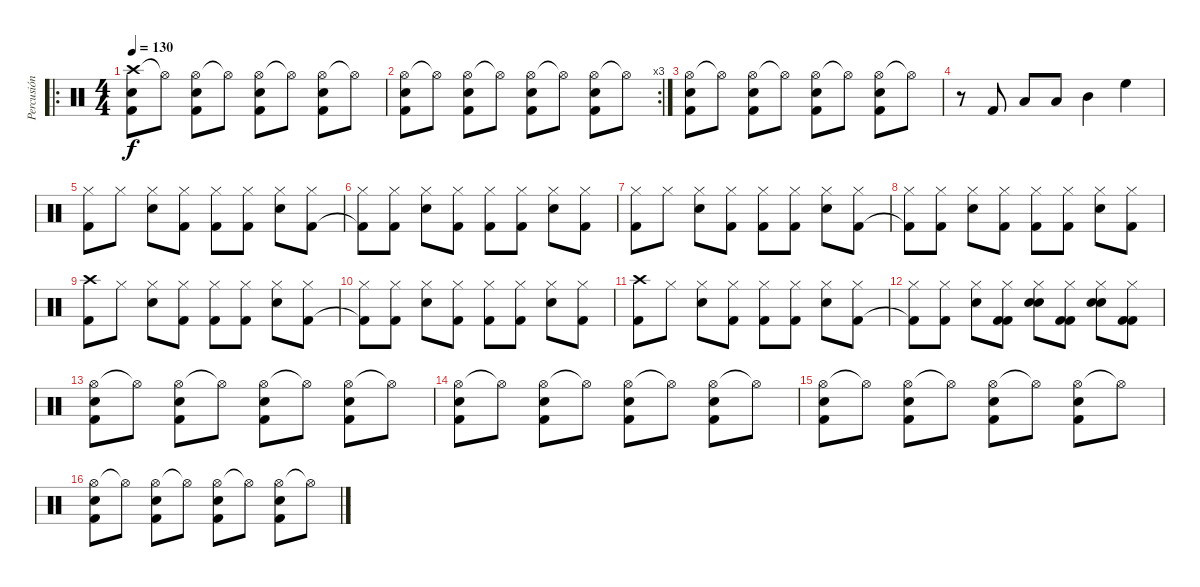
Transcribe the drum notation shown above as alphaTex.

\track ("Percusión" "Percusión") {instrument percussion}
\staff {score}
\articulation defaults
\ro
\ts (4 4)
\tempo 130
\clef neutral
\ks c
("Crash high (hit)" "Snare (hit) 2" "Kick (hit) 2").8{dy f} "Hi-Hat (open)"{t}.8 ("Hi-Hat (open)" "Snare (hit) 2" "Kick (hit) 2").8 "Hi-Hat (open)"{t}.8 ("Hi-Hat (open)" "Snare (hit) 2" "Kick (hit) 2").8 "Hi-Hat (open)"{t}.8 ("Hi-Hat (open)" "Snare (hit) 2" "Kick (hit) 2").8 "Hi-Hat (open)"{t}.8 |
\rc 3
("Hi-Hat (open)" "Snare (hit) 2" "Kick (hit) 2").8 "Hi-Hat (open)"{t}.8 ("Hi-Hat (open)" "Snare (hit) 2" "Kick (hit) 2").8 "Hi-Hat (open)"{t}.8 ("Hi-Hat (open)" "Snare (hit) 2" "Kick (hit) 2").8 "Hi-Hat (open)"{t}.8 ("Hi-Hat (open)" "Snare (hit) 2" "Kick (hit) 2").8 "Hi-Hat (open)"{t}.8 |
("Hi-Hat (open)" "Snare (hit) 2" "Kick (hit) 2").8 "Hi-Hat (open)"{t}.8 ("Hi-Hat (open)" "Snare (hit) 2" "Kick (hit) 2").8 "Hi-Hat (open)"{t}.8 ("Hi-Hat (open)" "Snare (hit) 2" "Kick (hit) 2").8 "Hi-Hat (open)"{t}.8 ("Hi-Hat (open)" "Snare (hit) 2" "Kick (hit) 2").8 "Hi-Hat (open)"{t}.8 |
r.8 "Kick (hit) 2".8 "Low Floor Tom (hit)".8 "Low Tom (hit)".8 "Mid Tom (hit)".4 "High Floor Tom (hit)".4 |
("Hi-Hat (closed)" "Kick (hit) 2").8 "Hi-Hat (closed)".8 ("Hi-Hat (closed)" "Snare (hit) 2").8 ("Hi-Hat (closed)" "Kick (hit) 2").8 ("Hi-Hat (closed)" "Kick (hit) 2").8 ("Hi-Hat (closed)" "Kick (hit) 2").8 ("Hi-Hat (closed)" "Snare (hit) 2").8 ("Hi-Hat (closed)" "Kick (hit) 2").8 |
("Hi-Hat (closed)" "Kick (hit) 2"{t}).8 ("Hi-Hat (closed)" "Kick (hit) 2").8 ("Hi-Hat (closed)" "Snare (hit) 2").8 ("Hi-Hat (closed)" "Kick (hit) 2").8 ("Hi-Hat (closed)" "Kick (hit) 2").8 ("Hi-Hat (closed)" "Kick (hit) 2").8 ("Hi-Hat (closed)" "Snare (hit) 2").8 ("Hi-Hat (closed)" "Kick (hit) 2").8 |
("Hi-Hat (closed)" "Kick (hit) 2").8 "Hi-Hat (closed)".8 ("Hi-Hat (closed)" "Snare (hit) 2").8 ("Hi-Hat (closed)" "Kick (hit) 2").8 ("Hi-Hat (closed)" "Kick (hit) 2").8 ("Hi-Hat (closed)" "Kick (hit) 2").8 ("Hi-Hat (closed)" "Snare (hit) 2").8 ("Hi-Hat (closed)" "Kick (hit) 2").8 |
("Hi-Hat (closed)" "Kick (hit) 2"{t}).8 ("Hi-Hat (closed)" "Kick (hit) 2").8 ("Hi-Hat (closed)" "Snare (hit) 2").8 ("Hi-Hat (closed)" "Kick (hit) 2").8 ("Hi-Hat (closed)" "Kick (hit) 2").8 ("Hi-Hat (closed)" "Kick (hit) 2").8 ("Hi-Hat (closed)" "Snare (hit) 2").8 ("Hi-Hat (closed)" "Kick (hit) 2").8 |
("Crash high (hit)" "Kick (hit) 2").8 "Hi-Hat (closed)".8 ("Hi-Hat (closed)" "Snare (hit) 2").8 ("Hi-Hat (closed)" "Kick (hit) 2").8 ("Hi-Hat (closed)" "Kick (hit) 2").8 ("Hi-Hat (closed)" "Kick (hit) 2").8 ("Hi-Hat (closed)" "Snare (hit) 2").8 ("Hi-Hat (closed)" "Kick (hit) 2").8 |
("Hi-Hat (closed)" "Kick (hit) 2"{t}).8 ("Hi-Hat (closed)" "Kick (hit) 2").8 ("Hi-Hat (closed)" "Snare (hit) 2").8 ("Hi-Hat (closed)" "Kick (hit) 2").8 ("Hi-Hat (closed)" "Kick (hit) 2").8 ("Hi-Hat (closed)" "Kick (hit) 2").8 ("Hi-Hat (closed)" "Snare (hit) 2").8 ("Hi-Hat (closed)" "Kick (hit) 2").8 |
("Crash high (hit)" "Kick (hit) 2").8 "Hi-Hat (closed)".8 ("Hi-Hat (closed)" "Snare (hit) 2").8 ("Hi-Hat (closed)" "Kick (hit) 2").8 ("Hi-Hat (closed)" "Kick (hit) 2").8 ("Hi-Hat (closed)" "Kick (hit) 2").8 ("Hi-Hat (closed)" "Snare (hit) 2").8 ("Hi-Hat (closed)" "Kick (hit) 2").8 |
("Hi-Hat (closed)" "Kick (hit) 2"{t}).8 ("Hi-Hat (closed)" "Kick (hit) 2").8 ("Hi-Hat (closed)" "Snare (hit) 2").8 ("Hi-Hat (closed)" "Kick (hit) 2" "Kick (hit) 2").8 ("Hi-Hat (closed)" "Snare (hit) 2" "Snare (hit) 2").8 ("Hi-Hat (closed)" "Kick (hit) 2" "Kick (hit) 2").8 ("Hi-Hat (closed)" "Snare (hit) 2" "Snare (hit) 2").8 ("Hi-Hat (closed)" "Kick (hit) 2" "Kick (hit) 2").8 |
("Hi-Hat (open)" "Snare (hit) 2" "Kick (hit) 2").8 "Hi-Hat (open)"{t}.8 ("Hi-Hat (open)" "Snare (hit) 2" "Kick (hit) 2").8 "Hi-Hat (open)"{t}.8 ("Hi-Hat (open)" "Snare (hit) 2" "Kick (hit) 2").8 "Hi-Hat (open)"{t}.8 ("Hi-Hat (open)" "Snare (hit) 2" "Kick (hit) 2").8 "Hi-Hat (open)"{t}.8 |
("Hi-Hat (open)" "Snare (hit) 2" "Kick (hit) 2").8 "Hi-Hat (open)"{t}.8 ("Hi-Hat (open)" "Snare (hit) 2" "Kick (hit) 2").8 "Hi-Hat (open)"{t}.8 ("Hi-Hat (open)" "Snare (hit) 2" "Kick (hit) 2").8 "Hi-Hat (open)"{t}.8 ("Hi-Hat (open)" "Snare (hit) 2" "Kick (hit) 2").8 "Hi-Hat (open)"{t}.8 |
("Hi-Hat (open)" "Snare (hit) 2" "Kick (hit) 2").8 "Hi-Hat (open)"{t}.8 ("Hi-Hat (open)" "Snare (hit) 2" "Kick (hit) 2").8 "Hi-Hat (open)"{t}.8 ("Hi-Hat (open)" "Snare (hit) 2" "Kick (hit) 2").8 "Hi-Hat (open)"{t}.8 ("Hi-Hat (open)" "Snare (hit) 2" "Kick (hit) 2").8 "Hi-Hat (open)"{t}.8 |
("Hi-Hat (open)" "Snare (hit) 2" "Kick (hit) 2").8 "Hi-Hat (open)"{t}.8 ("Hi-Hat (open)" "Snare (hit) 2" "Kick (hit) 2").8 "Hi-Hat (open)"{t}.8 ("Hi-Hat (open)" "Snare (hit) 2" "Kick (hit) 2").8 "Hi-Hat (open)"{t}.8 ("Hi-Hat (open)" "Snare (hit) 2" "Kick (hit) 2").8 "Hi-Hat (open)"{t}.8
